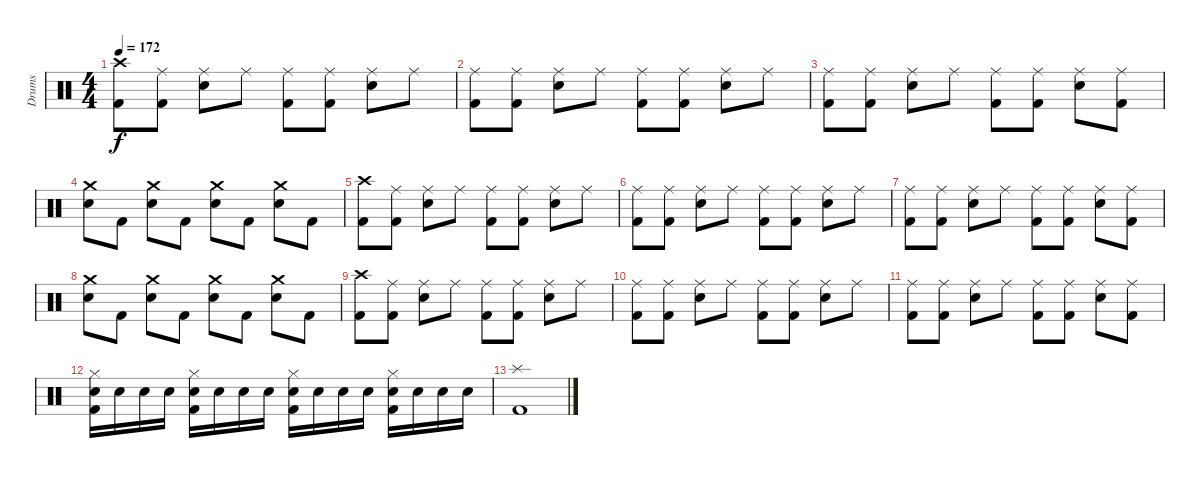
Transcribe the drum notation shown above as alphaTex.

\track ("Drums" "Drums") {instrument percussion}
\staff {score}
\articulation defaults
\ts (4 4)
\tempo 172
\clef neutral
\ks c
("Crash high (hit)" "Kick (hit) 2").8{dy f} ("Ride (middle)" "Kick (hit) 2").8 ("Ride (middle)" "Snare (hit) 2").8 "Ride (middle)".8 ("Ride (middle)" "Kick (hit) 2").8 ("Ride (middle)" "Kick (hit) 2").8 ("Ride (middle)" "Snare (hit) 2").8 "Ride (middle)".8 |
("Ride (middle)" "Kick (hit) 2").8 ("Ride (middle)" "Kick (hit) 2").8 ("Ride (middle)" "Snare (hit) 2").8 "Ride (middle)".8 ("Ride (middle)" "Kick (hit) 2").8 ("Ride (middle)" "Kick (hit) 2").8 ("Ride (middle)" "Snare (hit) 2").8 "Ride (middle)".8 |
("Ride (middle)" "Kick (hit) 2").8 ("Ride (middle)" "Kick (hit) 2").8 ("Ride (middle)" "Snare (hit) 2").8 "Ride (middle)".8 ("Ride (middle)" "Kick (hit) 2").8 ("Ride (middle)" "Kick (hit) 2").8 ("Ride (middle)" "Snare (hit) 2").8 ("Ride (middle)" "Kick (hit) 2").8 |
("Crash medium (hit)" "Snare (hit) 2").8 "Kick (hit) 2".8 ("Crash medium (hit)" "Snare (hit) 2").8 "Kick (hit) 2".8 ("Crash medium (hit)" "Snare (hit) 2").8 "Kick (hit) 2".8 ("Crash medium (hit)" "Snare (hit) 2").8 "Kick (hit) 2".8 |
("Crash high (hit)" "Kick (hit) 2").8 ("Ride (middle)" "Kick (hit) 2").8 ("Ride (middle)" "Snare (hit) 2").8 "Ride (middle)".8 ("Ride (middle)" "Kick (hit) 2").8 ("Ride (middle)" "Kick (hit) 2").8 ("Ride (middle)" "Snare (hit) 2").8 "Ride (middle)".8 |
("Ride (middle)" "Kick (hit) 2").8 ("Ride (middle)" "Kick (hit) 2").8 ("Ride (middle)" "Snare (hit) 2").8 "Ride (middle)".8 ("Ride (middle)" "Kick (hit) 2").8 ("Ride (middle)" "Kick (hit) 2").8 ("Ride (middle)" "Snare (hit) 2").8 "Ride (middle)".8 |
("Ride (middle)" "Kick (hit) 2").8 ("Ride (middle)" "Kick (hit) 2").8 ("Ride (middle)" "Snare (hit) 2").8 "Ride (middle)".8 ("Ride (middle)" "Kick (hit) 2").8 ("Ride (middle)" "Kick (hit) 2").8 ("Ride (middle)" "Snare (hit) 2").8 ("Ride (middle)" "Kick (hit) 2").8 |
("Crash medium (hit)" "Snare (hit) 2").8 "Kick (hit) 2".8 ("Crash medium (hit)" "Snare (hit) 2").8 "Kick (hit) 2".8 ("Crash medium (hit)" "Snare (hit) 2").8 "Kick (hit) 2".8 ("Crash medium (hit)" "Snare (hit) 2").8 "Kick (hit) 2".8 |
("Crash high (hit)" "Kick (hit) 2").8 ("Ride (middle)" "Kick (hit) 2").8 ("Ride (middle)" "Snare (hit) 2").8 "Ride (middle)".8 ("Ride (middle)" "Kick (hit) 2").8 ("Ride (middle)" "Kick (hit) 2").8 ("Ride (middle)" "Snare (hit) 2").8 "Ride (middle)".8 |
("Ride (middle)" "Kick (hit) 2").8 ("Ride (middle)" "Kick (hit) 2").8 ("Ride (middle)" "Snare (hit) 2").8 "Ride (middle)".8 ("Ride (middle)" "Kick (hit) 2").8 ("Ride (middle)" "Kick (hit) 2").8 ("Ride (middle)" "Snare (hit) 2").8 "Ride (middle)".8 |
("Ride (middle)" "Kick (hit) 2").8 ("Ride (middle)" "Kick (hit) 2").8 ("Ride (middle)" "Snare (hit) 2").8 "Ride (middle)".8 ("Ride (middle)" "Kick (hit) 2").8 ("Ride (middle)" "Kick (hit) 2").8 ("Ride (middle)" "Snare (hit) 2").8 ("Ride (middle)" "Kick (hit) 2").8 |
("Hi-Hat (closed)" "Snare (hit) 2" "Kick (hit) 2").16 "Snare (hit) 2".16 "Snare (hit) 2".16 "Snare (hit) 2".16 ("Hi-Hat (closed)" "Snare (hit) 2" "Kick (hit) 2").16 "Snare (hit) 2".16 "Snare (hit) 2".16 "Snare (hit) 2".16 ("Hi-Hat (closed)" "Snare (hit) 2" "Kick (hit) 2").16 "Snare (hit) 2".16 "Snare (hit) 2".16 "Snare (hit) 2".16 ("Hi-Hat (closed)" "Snare (hit) 2" "Kick (hit) 2").16 "Snare (hit) 2".16 "Snare (hit) 2".16 "Snare (hit) 2".16 |
("Splash (hit)" "Kick (hit) 2").1
